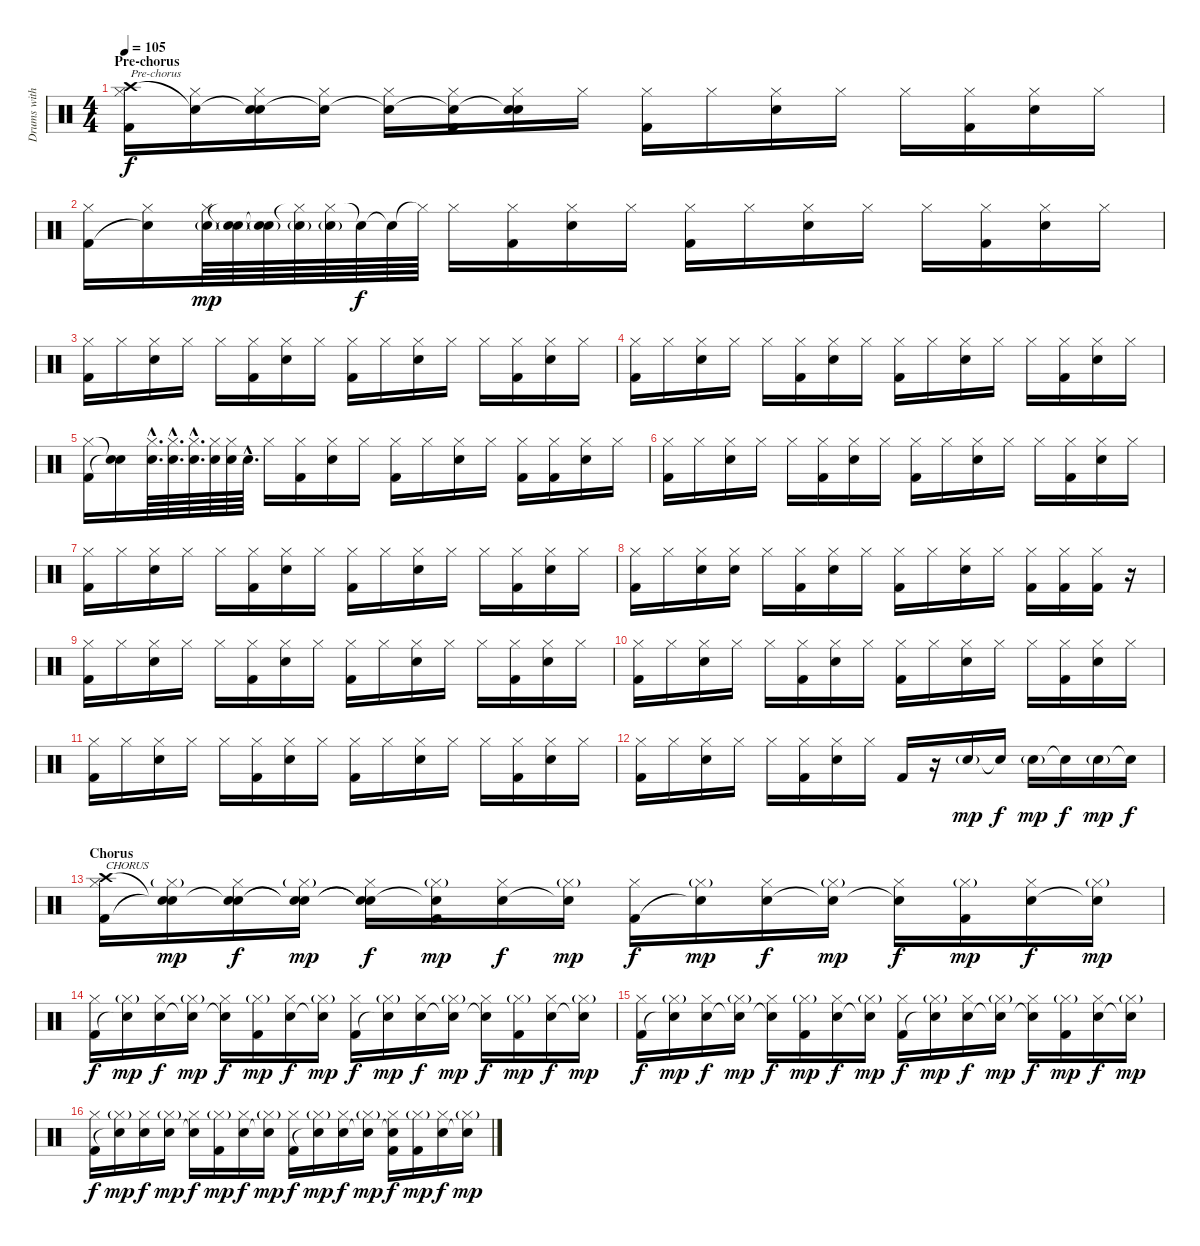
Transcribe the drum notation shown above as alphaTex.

\track ("Drums with sampled drums (Rob and Joe)" "Drums with") {instrument percussion}
\staff {score}
\articulation defaults
\ts (4 4)
\section ("" "Pre-chorus")
\tempo 105
\clef neutral
\ks c
("Crash high (hit)" "Hi-Hat (closed)" "Kick (hit) 2").16{txt "Pre-chorus" dy f} ("Snare (hit)"{t} "Hi-Hat (closed)").16 ("Snare (hit)"{t} "Hi-Hat (closed)" "Electric Snare (hit)").16 ("Snare (hit)"{t} "Hi-Hat (closed)").16 ("Snare (hit)"{t} "Hi-Hat (closed)").16 ("Snare (hit)"{t} "Hi-Hat (closed)" "Kick (hit) 2").16 ("Snare (hit)"{t} "Hi-Hat (closed)" "Electric Snare (hit)").16 "Hi-Hat (closed)".16 ("Hi-Hat (closed)" "Kick (hit) 2").16 "Hi-Hat (closed)".16 ("Hi-Hat (closed)" "Electric Snare (hit)").16 "Hi-Hat (closed)".16 "Hi-Hat (closed)".16 ("Hi-Hat (closed)" "Kick (hit) 2").16 ("Hi-Hat (closed)" "Electric Snare (hit)").16 "Hi-Hat (closed)".16 |
("Hi-Hat (closed)" "Kick (hit) 2").16 ("Hi-Hat (closed)" "Snare (hit)"{t}).16 ("Hi-Hat (closed)" "Electric Snare (hit)"{g}).64{dy mp} ("Snare (hit)"{t} "Electric Snare (hit)"{g}).64 ("Snare (hit)"{t} "Electric Snare (hit)"{g}).64 ("Hi-Hat (closed)"{t} "Electric Snare (hit)"{g}).64 ("Hi-Hat (closed)" "Electric Snare (hit)"{g}).64 "Snare (hit)"{t}.64{dy f} "Snare (hit)"{t}.64 "Hi-Hat (closed)"{t}.64 "Hi-Hat (closed)".16 ("Hi-Hat (closed)" "Kick (hit) 2").16 ("Hi-Hat (closed)" "Electric Snare (hit)").16 "Hi-Hat (closed)".16 ("Hi-Hat (closed)" "Kick (hit) 2").16 "Hi-Hat (closed)".16 ("Hi-Hat (closed)" "Electric Snare (hit)").16 "Hi-Hat (closed)".16 "Hi-Hat (closed)".16 ("Hi-Hat (closed)" "Kick (hit) 2").16 ("Hi-Hat (closed)" "Electric Snare (hit)").16 "Hi-Hat (closed)".16 |
("Hi-Hat (closed)" "Kick (hit) 2").16 "Hi-Hat (closed)".16 ("Hi-Hat (closed)" "Electric Snare (hit)").16 "Hi-Hat (closed)".16 "Hi-Hat (closed)".16 ("Hi-Hat (closed)" "Kick (hit) 2").16 ("Hi-Hat (closed)" "Electric Snare (hit)").16 "Hi-Hat (closed)".16 ("Hi-Hat (closed)" "Kick (hit) 2").16 "Hi-Hat (closed)".16 ("Hi-Hat (closed)" "Electric Snare (hit)").16 "Hi-Hat (closed)".16 "Hi-Hat (closed)".16 ("Hi-Hat (closed)" "Kick (hit) 2").16 ("Hi-Hat (closed)" "Electric Snare (hit)").16 "Hi-Hat (closed)".16 |
("Hi-Hat (closed)" "Kick (hit) 2").16 "Hi-Hat (closed)".16 ("Hi-Hat (closed)" "Electric Snare (hit)").16 "Hi-Hat (closed)".16 "Hi-Hat (closed)".16 ("Hi-Hat (closed)" "Kick (hit) 2").16 ("Hi-Hat (closed)" "Electric Snare (hit)").16 "Hi-Hat (closed)".16 ("Hi-Hat (closed)" "Kick (hit) 2").16 "Hi-Hat (closed)".16 ("Hi-Hat (closed)" "Electric Snare (hit)").16 "Hi-Hat (closed)".16 "Hi-Hat (closed)".16 ("Hi-Hat (closed)" "Kick (hit) 2").16 ("Hi-Hat (closed)" "Electric Snare (hit)").16 "Hi-Hat (closed)".16 |
("Hi-Hat (closed)" "Kick (hit) 2").16 ("Snare (hit)"{t} "Snare (hit)"{t}).16 ("Hi-Hat (closed)"{hac} "Electric Snare (hit)"{hac}).64{d} ("Hi-Hat (closed)"{hac} "Electric Snare (hit)"{hac}).64{d} ("Hi-Hat (closed)"{hac} "Electric Snare (hit)"{hac}).64{d} ("Hi-Hat (closed)" "Electric Snare (hit)").64 ("Hi-Hat (closed)" "Electric Snare (hit)").64 "Electric Snare (hit)"{hac}.64{d} "Hi-Hat (closed)".16 ("Hi-Hat (closed)" "Kick (hit) 2").16 ("Hi-Hat (closed)" "Electric Snare (hit)").16 "Hi-Hat (closed)".16 ("Hi-Hat (closed)" "Kick (hit) 2").16 "Hi-Hat (closed)".16 ("Hi-Hat (closed)" "Electric Snare (hit)").16 "Hi-Hat (closed)".16 ("Hi-Hat (closed)" "Kick (hit) 2").16 ("Hi-Hat (closed)" "Kick (hit) 2").16 ("Hi-Hat (closed)" "Electric Snare (hit)").16 "Hi-Hat (closed)".16 |
("Hi-Hat (closed)" "Kick (hit) 2").16 "Hi-Hat (closed)".16 ("Hi-Hat (closed)" "Electric Snare (hit)").16 "Hi-Hat (closed)".16 "Hi-Hat (closed)".16 ("Hi-Hat (closed)" "Kick (hit) 2").16 ("Hi-Hat (closed)" "Electric Snare (hit)").16 "Hi-Hat (closed)".16 ("Hi-Hat (closed)" "Kick (hit) 2").16 "Hi-Hat (closed)".16 ("Hi-Hat (closed)" "Electric Snare (hit)").16 "Hi-Hat (closed)".16 "Hi-Hat (closed)".16 ("Hi-Hat (closed)" "Kick (hit) 2").16 ("Hi-Hat (closed)" "Electric Snare (hit)").16 "Hi-Hat (closed)".16 |
("Hi-Hat (closed)" "Kick (hit) 2").16 "Hi-Hat (closed)".16 ("Hi-Hat (closed)" "Electric Snare (hit)").16 "Hi-Hat (closed)".16 "Hi-Hat (closed)".16 ("Hi-Hat (closed)" "Kick (hit) 2").16 ("Hi-Hat (closed)" "Electric Snare (hit)").16 "Hi-Hat (closed)".16 ("Hi-Hat (closed)" "Kick (hit) 2").16 "Hi-Hat (closed)".16 ("Hi-Hat (closed)" "Electric Snare (hit)").16 "Hi-Hat (closed)".16 "Hi-Hat (closed)".16 ("Hi-Hat (closed)" "Kick (hit) 2").16 ("Hi-Hat (closed)" "Electric Snare (hit)").16 "Hi-Hat (closed)".16 |
("Hi-Hat (closed)" "Kick (hit) 2").16 "Hi-Hat (closed)".16 ("Hi-Hat (closed)" "Electric Snare (hit)").16 ("Hi-Hat (closed)" "Electric Snare (hit)").16 "Hi-Hat (closed)".16 ("Hi-Hat (closed)" "Kick (hit) 2").16 ("Hi-Hat (closed)" "Electric Snare (hit)").16 "Hi-Hat (closed)".16 ("Hi-Hat (closed)" "Kick (hit) 2").16 "Hi-Hat (closed)".16 ("Hi-Hat (closed)" "Electric Snare (hit)").16 "Hi-Hat (closed)".16 ("Hi-Hat (closed)" "Kick (hit) 2").16 ("Hi-Hat (closed)" "Kick (hit) 2").16 ("Hi-Hat (closed)" "Kick (hit) 2").16 r.16 |
("Hi-Hat (closed)" "Kick (hit) 2").16 "Hi-Hat (closed)".16 ("Hi-Hat (closed)" "Electric Snare (hit)").16 "Hi-Hat (closed)".16 "Hi-Hat (closed)".16 ("Hi-Hat (closed)" "Kick (hit) 2").16 ("Hi-Hat (closed)" "Electric Snare (hit)").16 "Hi-Hat (closed)".16 ("Hi-Hat (closed)" "Kick (hit) 2").16 "Hi-Hat (closed)".16 ("Hi-Hat (closed)" "Electric Snare (hit)").16 "Hi-Hat (closed)".16 "Hi-Hat (closed)".16 ("Hi-Hat (closed)" "Kick (hit) 2").16 ("Hi-Hat (closed)" "Electric Snare (hit)").16 "Hi-Hat (closed)".16 |
("Hi-Hat (closed)" "Kick (hit) 2").16 "Hi-Hat (closed)".16 ("Hi-Hat (closed)" "Electric Snare (hit)").16 "Hi-Hat (closed)".16 "Hi-Hat (closed)".16 ("Hi-Hat (closed)" "Kick (hit) 2").16 ("Hi-Hat (closed)" "Electric Snare (hit)").16 "Hi-Hat (closed)".16 ("Hi-Hat (closed)" "Kick (hit) 2").16 "Hi-Hat (closed)".16 ("Hi-Hat (closed)" "Electric Snare (hit)").16 "Hi-Hat (closed)".16 "Hi-Hat (closed)".16 ("Hi-Hat (closed)" "Kick (hit) 2").16 ("Hi-Hat (closed)" "Electric Snare (hit)").16 "Hi-Hat (closed)".16 |
("Hi-Hat (closed)" "Kick (hit) 2").16 "Hi-Hat (closed)".16 ("Hi-Hat (closed)" "Electric Snare (hit)").16 "Hi-Hat (closed)".16 "Hi-Hat (closed)".16 ("Hi-Hat (closed)" "Kick (hit) 2").16 ("Hi-Hat (closed)" "Electric Snare (hit)").16 "Hi-Hat (closed)".16 ("Hi-Hat (closed)" "Kick (hit) 2").16 "Hi-Hat (closed)".16 ("Hi-Hat (closed)" "Electric Snare (hit)").16 "Hi-Hat (closed)".16 "Hi-Hat (closed)".16 ("Hi-Hat (closed)" "Kick (hit) 2").16 ("Hi-Hat (closed)" "Electric Snare (hit)").16 "Hi-Hat (closed)".16 |
("Hi-Hat (closed)" "Kick (hit) 2").16 "Hi-Hat (closed)".16 ("Hi-Hat (closed)" "Electric Snare (hit)").16 "Hi-Hat (closed)".16 "Hi-Hat (closed)".16 ("Hi-Hat (closed)" "Kick (hit) 2").16 ("Hi-Hat (closed)" "Electric Snare (hit)").16 "Hi-Hat (closed)".16 "Kick (hit) 2".16 r.16 "Electric Snare (hit)"{g}.16{dy mp} "Snare (hit)"{t}.16{dy f} "Electric Snare (hit)"{g}.16{dy mp} "Snare (hit)"{t}.16{dy f} "Electric Snare (hit)"{g}.16{dy mp} "Snare (hit)"{t}.16{dy f} |
\section ("" "Chorus")
("Crash high (hit)" "Hi-Hat (closed)" "Kick (hit) 2").16{txt "CHORUS"} ("Snare (hit)"{t} "Hi-Hat (closed)"{g} "Snare (hit)"{t}).16{dy mp} ("Snare (hit)"{t} "Hi-Hat (closed)" "Electric Snare (hit)").16{dy f} ("Snare (hit)"{t} "Hi-Hat (closed)"{g} "Snare (hit)"{t}).16{dy mp} ("Snare (hit)"{t} "Hi-Hat (closed)" "Snare (hit)"{t}).16{dy f} ("Snare (hit)"{t} "Hi-Hat (closed)"{g} "Kick (hit) 2").16{dy mp} ("Hi-Hat (closed)" "Electric Snare (hit)").16{dy f} ("Hi-Hat (closed)"{g} "Snare (hit)"{t}).16{dy mp} ("Hi-Hat (closed)" "Kick (hit) 2").16{dy f} ("Hi-Hat (closed)"{g} "Snare (hit)"{t}).16{dy mp} ("Hi-Hat (closed)" "Electric Snare (hit)").16{dy f} ("Hi-Hat (closed)"{g} "Snare (hit)"{t}).16{dy mp} ("Hi-Hat (closed)" "Snare (hit)"{t}).16{dy f} ("Hi-Hat (closed)"{g} "Kick (hit) 2").16{dy mp} ("Hi-Hat (closed)" "Electric Snare (hit)").16{dy f} ("Hi-Hat (closed)"{g} "Snare (hit)"{t}).16{dy mp} |
("Hi-Hat (closed)" "Kick (hit) 2").16{dy f} ("Hi-Hat (closed)"{g} "Snare (hit)"{t}).16{dy mp} ("Hi-Hat (closed)" "Electric Snare (hit)").16{dy f} ("Hi-Hat (closed)"{g} "Snare (hit)"{t}).16{dy mp} ("Hi-Hat (closed)" "Snare (hit)"{t}).16{dy f} ("Hi-Hat (closed)"{g} "Kick (hit) 2").16{dy mp} ("Hi-Hat (closed)" "Electric Snare (hit)").16{dy f} ("Hi-Hat (closed)"{g} "Snare (hit)"{t}).16{dy mp} ("Hi-Hat (closed)" "Kick (hit) 2").16{dy f} ("Hi-Hat (closed)"{g} "Snare (hit)"{t}).16{dy mp} ("Hi-Hat (closed)" "Electric Snare (hit)").16{dy f} ("Hi-Hat (closed)"{g} "Snare (hit)"{t}).16{dy mp} ("Hi-Hat (closed)" "Snare (hit)"{t}).16{dy f} ("Hi-Hat (closed)"{g} "Kick (hit) 2").16{dy mp} ("Hi-Hat (closed)" "Electric Snare (hit)").16{dy f} ("Hi-Hat (closed)"{g} "Snare (hit)"{t}).16{dy mp} |
("Hi-Hat (closed)" "Kick (hit) 2").16{dy f} ("Hi-Hat (closed)"{g} "Snare (hit)"{t}).16{dy mp} ("Hi-Hat (closed)" "Electric Snare (hit)").16{dy f} ("Hi-Hat (closed)"{g} "Snare (hit)"{t}).16{dy mp} ("Hi-Hat (closed)" "Snare (hit)"{t}).16{dy f} ("Hi-Hat (closed)"{g} "Kick (hit) 2").16{dy mp} ("Hi-Hat (closed)" "Electric Snare (hit)").16{dy f} ("Hi-Hat (closed)"{g} "Snare (hit)"{t}).16{dy mp} ("Hi-Hat (closed)" "Kick (hit) 2").16{dy f} ("Hi-Hat (closed)"{g} "Snare (hit)"{t}).16{dy mp} ("Hi-Hat (closed)" "Electric Snare (hit)").16{dy f} ("Hi-Hat (closed)"{g} "Snare (hit)"{t}).16{dy mp} ("Hi-Hat (closed)" "Snare (hit)"{t}).16{dy f} ("Hi-Hat (closed)"{g} "Kick (hit) 2").16{dy mp} ("Hi-Hat (closed)" "Electric Snare (hit)").16{dy f} ("Hi-Hat (closed)"{g} "Snare (hit)"{t}).16{dy mp} |
("Hi-Hat (closed)" "Kick (hit) 2").16{dy f} ("Hi-Hat (closed)"{g} "Snare (hit)"{t}).16{dy mp} ("Hi-Hat (closed)" "Electric Snare (hit)").16{dy f} ("Hi-Hat (closed)"{g} "Electric Snare (hit)").16{dy mp} ("Hi-Hat (closed)" "Snare (hit)"{t}).16{dy f} ("Hi-Hat (closed)"{g} "Kick (hit) 2").16{dy mp} ("Hi-Hat (closed)" "Electric Snare (hit)").16{dy f} ("Hi-Hat (closed)"{g} "Snare (hit)"{t}).16{dy mp} ("Hi-Hat (closed)" "Kick (hit) 2").16{dy f} ("Hi-Hat (closed)"{g} "Snare (hit)"{t}).16{dy mp} ("Hi-Hat (closed)" "Electric Snare (hit)").16{dy f} ("Hi-Hat (closed)"{g} "Snare (hit)"{t}).16{dy mp} ("Hi-Hat (closed)" "Snare (hit)"{t} "Kick (hit) 2").16{dy f} ("Hi-Hat (closed)"{g} "Kick (hit) 2").16{dy mp} ("Hi-Hat (closed)" "Electric Snare (hit)").16{dy f} ("Hi-Hat (closed)"{g} "Snare (hit)"{t}).16{dy mp}
